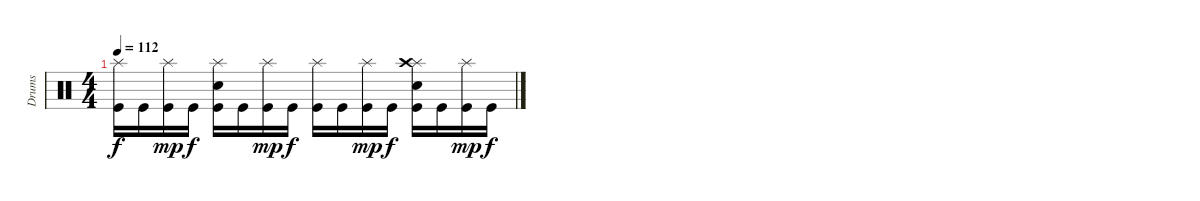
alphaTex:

\track ("Drums" "Drums") {instrument percussion}
\staff {score}
\articulation defaults
\ts (4 4)
\tempo 112
\clef neutral
\ks c
("Splash (hit)" "Kick (hit)").16{dy f} "Kick (hit)".16 ("Splash (hit)" "Kick (hit)").16{dy mp} "Kick (hit)".16{dy f} ("Splash (hit)" "Electric Snare (hit)" "Kick (hit)").16 "Kick (hit)".16 ("Splash (hit)" "Kick (hit)").16{dy mp} "Kick (hit)".16{dy f} ("Splash (hit)" "Kick (hit)").16 "Kick (hit)".16 ("Splash (hit)" "Kick (hit)").16{dy mp} "Kick (hit)".16{dy f} ("Splash (hit)" "Crash high (hit)" "Electric Snare (hit)" "Kick (hit)").16 "Kick (hit)".16 ("Splash (hit)" "Kick (hit)").16{dy mp} "Kick (hit)".16{dy f}
